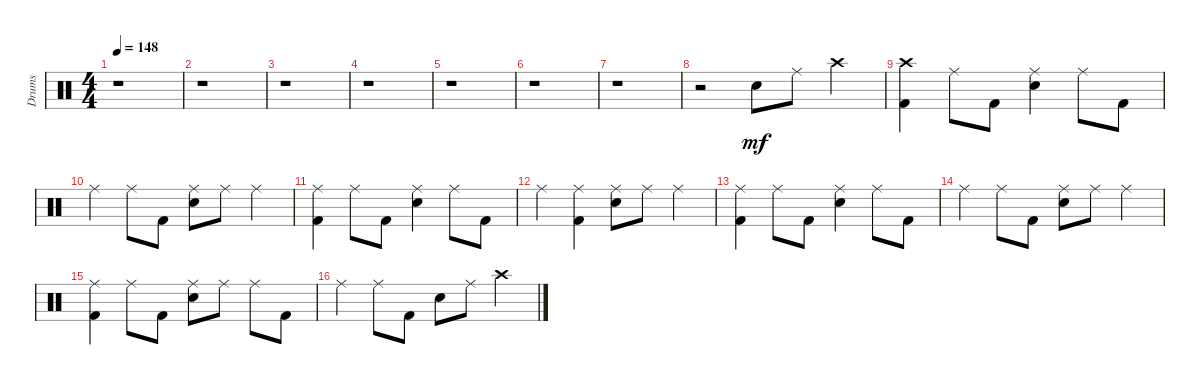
\track ("Drums" "Drums") {instrument percussion}
\staff {score}
\articulation defaults
\ts (4 4)
\tempo 148
\clef neutral
\ks c
r.1{dy mf} |
r.1 |
r.1 |
r.1 |
r.1 |
r.1 |
r.1 |
r.2 "Electric Snare (hit)".8 "Ride (middle)".8 "Crash high (hit)".4 |
("Crash high (hit)" "Kick (hit) 2").4 "Ride (middle)".8 "Kick (hit) 2".8 ("Ride (middle)" "Electric Snare (hit)").4 "Ride (middle)".8 "Kick (hit) 2".8 |
"Ride (middle)".4 "Ride (middle)".8 "Kick (hit) 2".8 ("Ride (middle)" "Electric Snare (hit)").8 "Ride (middle)".8 "Ride (middle)".4 |
("Ride (middle)" "Kick (hit) 2").4 "Ride (middle)".8 "Kick (hit) 2".8 ("Ride (middle)" "Electric Snare (hit)").4 "Ride (middle)".8 "Kick (hit) 2".8 |
"Ride (middle)".4 ("Ride (middle)" "Kick (hit) 2").4 ("Ride (middle)" "Electric Snare (hit)").8 "Ride (middle)".8 "Ride (middle)".4 |
("Ride (middle)" "Kick (hit) 2").4 "Ride (middle)".8 "Kick (hit) 2".8 ("Ride (middle)" "Electric Snare (hit)").4 "Ride (middle)".8 "Kick (hit) 2".8 |
"Ride (middle)".4 "Ride (middle)".8 "Kick (hit) 2".8 ("Ride (middle)" "Electric Snare (hit)").8 "Ride (middle)".8 "Ride (middle)".4 |
("Ride (middle)" "Kick (hit) 2").4 "Ride (middle)".8 "Kick (hit) 2".8 ("Ride (middle)" "Electric Snare (hit)").8 "Ride (middle)".8 "Ride (middle)".8 "Kick (hit) 2".8 |
"Ride (middle)".4 "Ride (middle)".8 "Kick (hit) 2".8 "Electric Snare (hit)".8 "Ride (middle)".8 "Crash high (hit)".4
